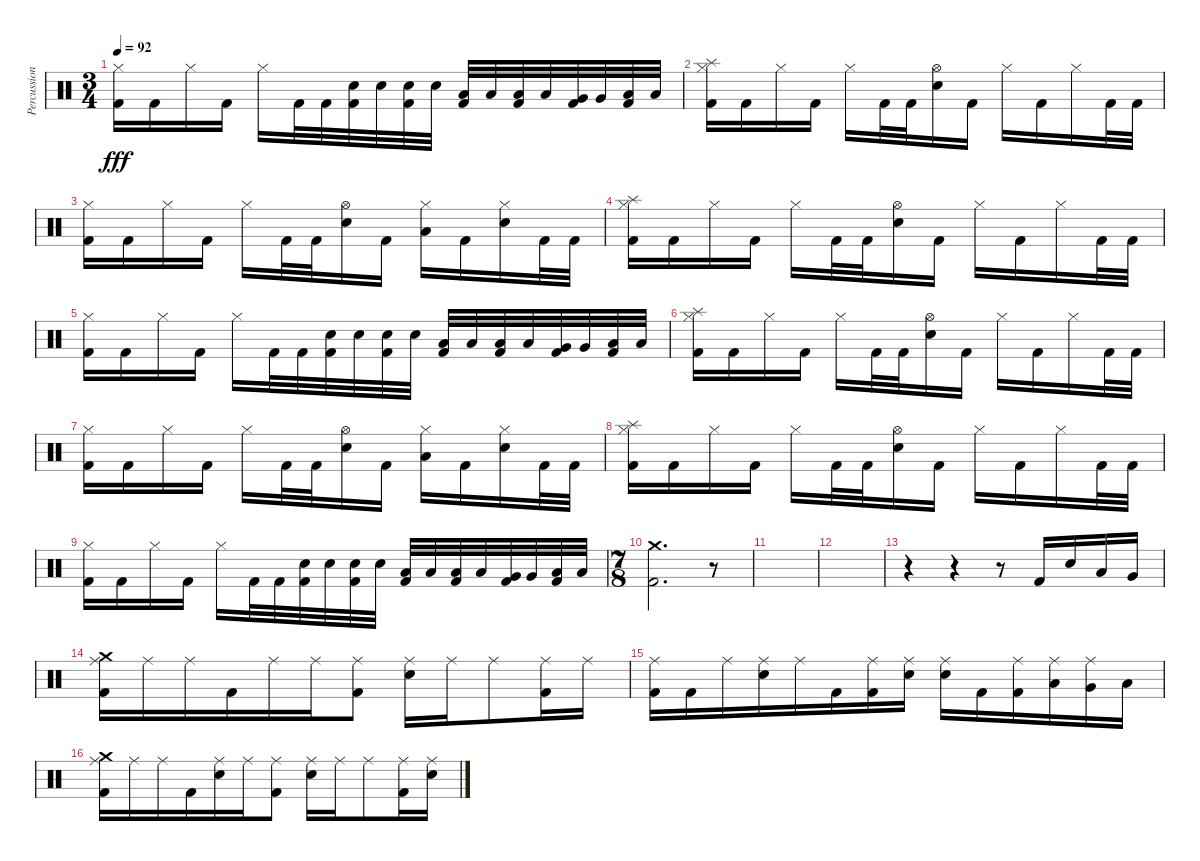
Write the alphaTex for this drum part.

\track ("Percussion" "Percussion") {instrument percussion}
\staff {score}
\articulation defaults
\ts (3 4)
\tempo 92
\clef neutral
\ks c
("Hi-Hat (closed)" "Kick (hit) 2").16{dy fff} "Kick (hit) 2".16 "Hi-Hat (closed)".16 "Kick (hit) 2".16 "Hi-Hat (closed)".16 "Kick (hit) 2".32 "Kick (hit) 2".32 ("Electric Snare (hit)" "Kick (hit) 2").32 "Electric Snare (hit)".32 ("Electric Snare (hit)" "Kick (hit) 2").32 "Electric Snare (hit)".32 ("Low Tom (hit)" "Kick (hit) 2").32 "Low Tom (hit)".32 ("Low Tom (hit)" "Kick (hit) 2").32 "Low Tom (hit)".32 ("Very Low Tom (hit)" "Kick (hit) 2").32 "Very Low Tom (hit)".32 ("Low Floor Tom (hit)" "Kick (hit) 2").32 "Low Floor Tom (hit)".32 |
("Splash (hit)" "Hi-Hat (closed)" "Kick (hit) 2").16 "Kick (hit) 2".16 "Hi-Hat (closed)".16 "Kick (hit) 2".16 "Hi-Hat (closed)".16 "Kick (hit) 2".32 "Kick (hit) 2".32 ("Hi-Hat (open)" "Electric Snare (hit)").16 "Kick (hit) 2".16 "Hi-Hat (closed)".16 "Kick (hit) 2".16 "Hi-Hat (closed)".16 "Kick (hit) 2".32 "Kick (hit) 2".32 |
("Hi-Hat (closed)" "Kick (hit) 2").16 "Kick (hit) 2".16 "Hi-Hat (closed)".16 "Kick (hit) 2".16 "Hi-Hat (closed)".16 "Kick (hit) 2".32 "Kick (hit) 2".32 ("Hi-Hat (open)" "Electric Snare (hit)").16 "Kick (hit) 2".16 ("Hi-Hat (closed)" "Low Tom (hit)").16 "Kick (hit) 2".16 ("Hi-Hat (closed)" "Electric Snare (hit)").16 "Kick (hit) 2".32 "Kick (hit) 2".32 |
("Splash (hit)" "Hi-Hat (closed)" "Kick (hit) 2").16 "Kick (hit) 2".16 "Hi-Hat (closed)".16 "Kick (hit) 2".16 "Hi-Hat (closed)".16 "Kick (hit) 2".32 "Kick (hit) 2".32 ("Hi-Hat (open)" "Electric Snare (hit)").16 "Kick (hit) 2".16 "Hi-Hat (closed)".16 "Kick (hit) 2".16 "Hi-Hat (closed)".16 "Kick (hit) 2".32 "Kick (hit) 2".32 |
("Hi-Hat (closed)" "Kick (hit) 2").16 "Kick (hit) 2".16 "Hi-Hat (closed)".16 "Kick (hit) 2".16 "Hi-Hat (closed)".16 "Kick (hit) 2".32 "Kick (hit) 2".32 ("Electric Snare (hit)" "Kick (hit) 2").32 "Electric Snare (hit)".32 ("Electric Snare (hit)" "Kick (hit) 2").32 "Electric Snare (hit)".32 ("Low Tom (hit)" "Kick (hit) 2").32 "Low Tom (hit)".32 ("Low Tom (hit)" "Kick (hit) 2").32 "Low Tom (hit)".32 ("Very Low Tom (hit)" "Kick (hit) 2").32 "Very Low Tom (hit)".32 ("Low Floor Tom (hit)" "Kick (hit) 2").32 "Low Floor Tom (hit)".32 |
("Splash (hit)" "Hi-Hat (closed)" "Kick (hit) 2").16 "Kick (hit) 2".16 "Hi-Hat (closed)".16 "Kick (hit) 2".16 "Hi-Hat (closed)".16 "Kick (hit) 2".32 "Kick (hit) 2".32 ("Hi-Hat (open)" "Electric Snare (hit)").16 "Kick (hit) 2".16 "Hi-Hat (closed)".16 "Kick (hit) 2".16 "Hi-Hat (closed)".16 "Kick (hit) 2".32 "Kick (hit) 2".32 |
("Hi-Hat (closed)" "Kick (hit) 2").16 "Kick (hit) 2".16 "Hi-Hat (closed)".16 "Kick (hit) 2".16 "Hi-Hat (closed)".16 "Kick (hit) 2".32 "Kick (hit) 2".32 ("Hi-Hat (open)" "Electric Snare (hit)").16 "Kick (hit) 2".16 ("Hi-Hat (closed)" "Low Tom (hit)").16 "Kick (hit) 2".16 ("Hi-Hat (closed)" "Electric Snare (hit)").16 "Kick (hit) 2".32 "Kick (hit) 2".32 |
("Splash (hit)" "Hi-Hat (closed)" "Kick (hit) 2").16 "Kick (hit) 2".16 "Hi-Hat (closed)".16 "Kick (hit) 2".16 "Hi-Hat (closed)".16 "Kick (hit) 2".32 "Kick (hit) 2".32 ("Hi-Hat (open)" "Electric Snare (hit)").16 "Kick (hit) 2".16 "Hi-Hat (closed)".16 "Kick (hit) 2".16 "Hi-Hat (closed)".16 "Kick (hit) 2".32 "Kick (hit) 2".32 |
("Hi-Hat (closed)" "Kick (hit) 2").16 "Kick (hit) 2".16 "Hi-Hat (closed)".16 "Kick (hit) 2".16 "Hi-Hat (closed)".16 "Kick (hit) 2".32 "Kick (hit) 2".32 ("Electric Snare (hit)" "Kick (hit) 2").32 "Electric Snare (hit)".32 ("Electric Snare (hit)" "Kick (hit) 2").32 "Electric Snare (hit)".32 ("Low Tom (hit)" "Kick (hit) 2").32 "Low Tom (hit)".32 ("Low Tom (hit)" "Kick (hit) 2").32 "Low Tom (hit)".32 ("Very Low Tom (hit)" "Kick (hit) 2").32 "Very Low Tom (hit)".32 ("Low Floor Tom (hit)" "Kick (hit) 2").32 "Low Floor Tom (hit)".32 |
\ts (7 8)
("Crash medium (hit)" "Kick (hit) 2").2{d} r.8 |
|
|
r.4 r.4 r.8 "Kick (hit) 2".16 "Electric Snare (hit)".16 "Low Tom (hit)".16 "Very Low Tom (hit)".16 |
("Ride (middle)" "Crash medium (hit)" "Kick (hit) 2").16 "Ride (middle)".16 "Ride (middle)".16 "Kick (hit) 2".16 "Ride (middle)".16 "Ride (middle)".16 ("Ride (middle)" "Kick (hit) 2").8 ("Ride (middle)" "Electric Snare (hit)").16 "Ride (middle)".16 "Ride (middle)".8 ("Ride (middle)" "Kick (hit) 2").16 "Ride (middle)".16 |
("Ride (middle)" "Kick (hit) 2").16 "Kick (hit) 2".16 "Ride (middle)".16 ("Ride (middle)" "Electric Snare (hit)").16 "Ride (middle)".16 "Kick (hit) 2".16 ("Ride (middle)" "Kick (hit) 2").16 ("Ride (middle)" "Electric Snare (hit)").16 ("Ride (middle)" "Electric Snare (hit)").16 "Kick (hit) 2".16 ("Ride (middle)" "Kick (hit) 2").16 ("Ride (middle)" "Low Tom (hit)").16 ("Ride (middle)" "Very Low Tom (hit)").16 "Low Floor Tom (hit)".16 |
("Ride (middle)" "Crash medium (hit)" "Kick (hit) 2").16 "Ride (middle)".16 "Ride (middle)".16 "Kick (hit) 2".16 ("Ride (middle)" "Electric Snare (hit)").16 "Ride (middle)".16 ("Ride (middle)" "Kick (hit) 2").8 ("Ride (middle)" "Electric Snare (hit)").16 "Ride (middle)".16 "Ride (middle)".8 ("Ride (middle)" "Kick (hit) 2").16 ("Ride (middle)" "Electric Snare (hit)").16
